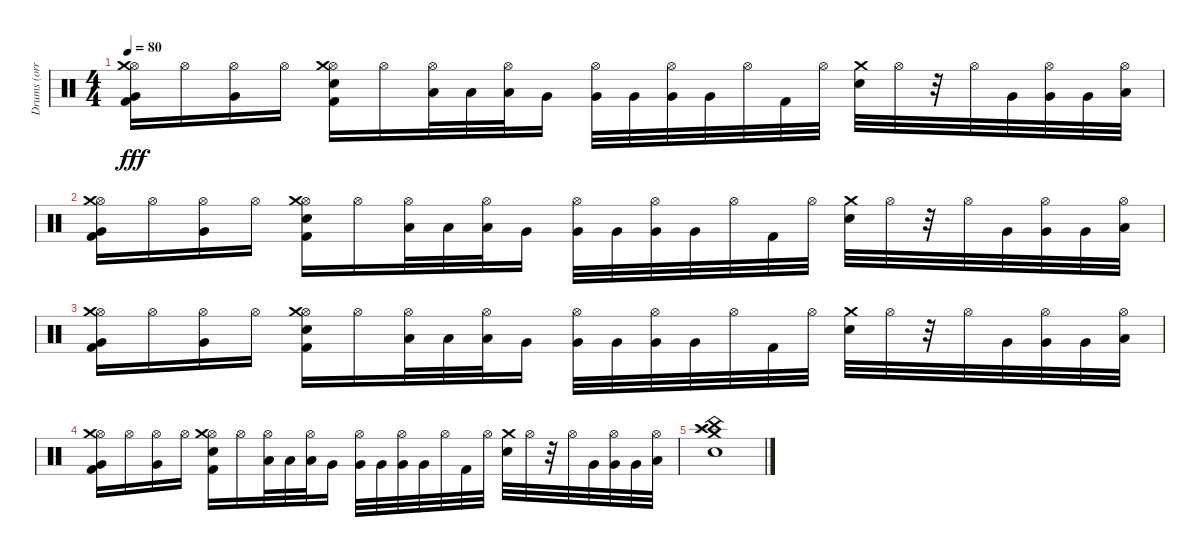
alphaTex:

\track ("Drums (orri páll dırason)" "Drums (orr") {instrument percussion}
\staff {score}
\articulation defaults
\ts (4 4)
\tempo 80
\clef neutral
\ks c
("Kick (hit) 2" "Hi-Hat (open)" "Crash medium (hit)" "Very Low Tom (hit)").16{dy fff} "Hi-Hat (open)".16 ("Hi-Hat (open)" "Very Low Tom (hit)").16 "Hi-Hat (open)".16 ("Kick (hit) 2" "Hi-Hat (open)" "Crash medium (hit)" "Electric Snare (hit)").16 "Hi-Hat (open)".16 ("Hi-Hat (open)" "Low Floor Tom (hit)").32 "Low Floor Tom (hit)".32 ("Hi-Hat (open)" "Low Floor Tom (hit)").32 "Very Low Tom (hit)".16 ("Hi-Hat (open)" "Very Low Tom (hit)").32 "Very Low Tom (hit)".32 ("Hi-Hat (open)" "Very Low Tom (hit)").32 "Very Low Tom (hit)".32 "Hi-Hat (open)".32 "Kick (hit) 2".32 "Hi-Hat (open)".32 ("Crash medium (hit)" "Electric Snare (hit)").32 "Hi-Hat (open)".32 r.32 "Hi-Hat (open)".32 "Very Low Tom (hit)".32 ("Hi-Hat (open)" "Very Low Tom (hit)").32 "Very Low Tom (hit)".32 ("Hi-Hat (open)" "Low Floor Tom (hit)").32 |
("Kick (hit) 2" "Hi-Hat (open)" "Crash medium (hit)" "Very Low Tom (hit)").16 "Hi-Hat (open)".16 ("Hi-Hat (open)" "Very Low Tom (hit)").16 "Hi-Hat (open)".16 ("Kick (hit) 2" "Hi-Hat (open)" "Crash medium (hit)" "Electric Snare (hit)").16 "Hi-Hat (open)".16 ("Hi-Hat (open)" "Low Floor Tom (hit)").32 "Low Floor Tom (hit)".32 ("Hi-Hat (open)" "Low Floor Tom (hit)").32 "Very Low Tom (hit)".16 ("Hi-Hat (open)" "Very Low Tom (hit)").32 "Very Low Tom (hit)".32 ("Hi-Hat (open)" "Very Low Tom (hit)").32 "Very Low Tom (hit)".32 "Hi-Hat (open)".32 "Kick (hit) 2".32 "Hi-Hat (open)".32 ("Crash medium (hit)" "Electric Snare (hit)").32 "Hi-Hat (open)".32 r.32 "Hi-Hat (open)".32 "Very Low Tom (hit)".32 ("Hi-Hat (open)" "Very Low Tom (hit)").32 "Very Low Tom (hit)".32 ("Hi-Hat (open)" "Low Floor Tom (hit)").32 |
("Kick (hit) 2" "Hi-Hat (open)" "Crash medium (hit)" "Very Low Tom (hit)").16 "Hi-Hat (open)".16 ("Hi-Hat (open)" "Very Low Tom (hit)").16 "Hi-Hat (open)".16 ("Kick (hit) 2" "Hi-Hat (open)" "Crash medium (hit)" "Electric Snare (hit)").16 "Hi-Hat (open)".16 ("Hi-Hat (open)" "Low Floor Tom (hit)").32 "Low Floor Tom (hit)".32 ("Hi-Hat (open)" "Low Floor Tom (hit)").32 "Very Low Tom (hit)".16 ("Hi-Hat (open)" "Very Low Tom (hit)").32 "Very Low Tom (hit)".32 ("Hi-Hat (open)" "Very Low Tom (hit)").32 "Very Low Tom (hit)".32 "Hi-Hat (open)".32 "Kick (hit) 2".32 "Hi-Hat (open)".32 ("Crash medium (hit)" "Electric Snare (hit)").32 "Hi-Hat (open)".32 r.32 "Hi-Hat (open)".32 "Very Low Tom (hit)".32 ("Hi-Hat (open)" "Very Low Tom (hit)").32 "Very Low Tom (hit)".32 ("Hi-Hat (open)" "Low Floor Tom (hit)").32 |
("Kick (hit) 2" "Hi-Hat (open)" "Crash medium (hit)" "Very Low Tom (hit)").16 "Hi-Hat (open)".16 ("Hi-Hat (open)" "Very Low Tom (hit)").16 "Hi-Hat (open)".16 ("Kick (hit) 2" "Hi-Hat (open)" "Crash medium (hit)" "Electric Snare (hit)").16 "Hi-Hat (open)".16 ("Hi-Hat (open)" "Low Floor Tom (hit)").32 "Low Floor Tom (hit)".32 ("Hi-Hat (open)" "Low Floor Tom (hit)").32 "Very Low Tom (hit)".16 ("Hi-Hat (open)" "Very Low Tom (hit)").32 "Very Low Tom (hit)".32 ("Hi-Hat (open)" "Very Low Tom (hit)").32 "Very Low Tom (hit)".32 "Hi-Hat (open)".32 "Kick (hit) 2".32 "Hi-Hat (open)".32 ("Crash medium (hit)" "Electric Snare (hit)").32 "Hi-Hat (open)".32 r.32 "Hi-Hat (open)".32 "Very Low Tom (hit)".32 ("Hi-Hat (open)" "Very Low Tom (hit)").32 "Very Low Tom (hit)".32 ("Hi-Hat (open)" "Low Floor Tom (hit)").32 |
("Crash high (hit)" "China (hit)" "Splash (hit)" "Crash medium (hit)" "Electric Snare (hit)").1
